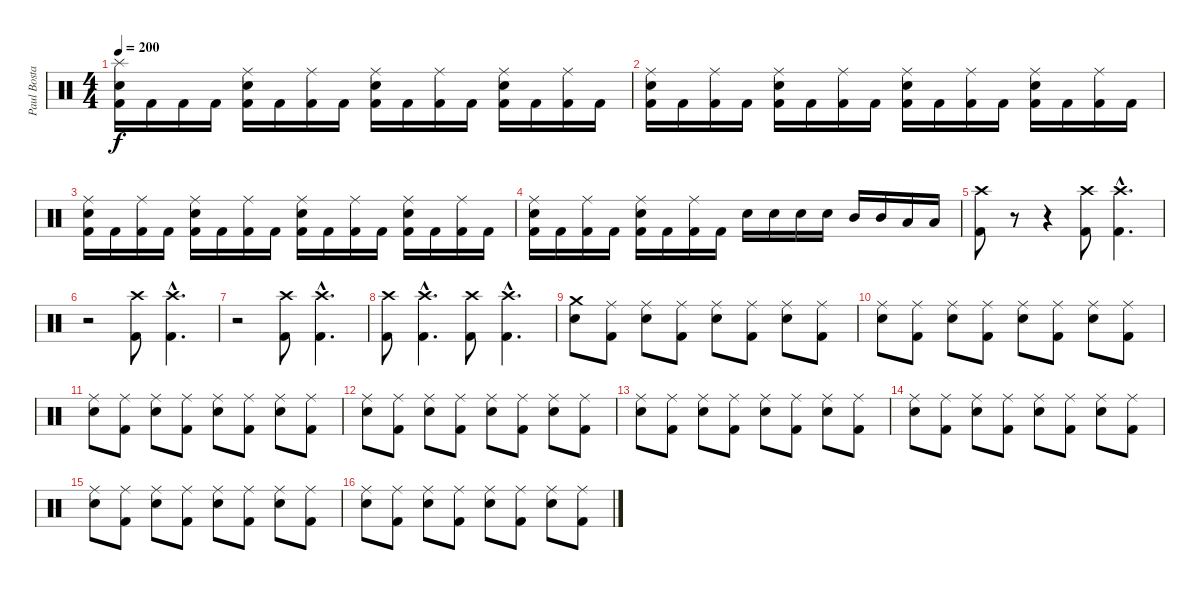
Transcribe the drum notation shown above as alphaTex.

\track ("Paul Bostaph" "Paul Bosta") {instrument percussion}
\staff {score}
\articulation defaults
\ts (4 4)
\tempo 200
\clef neutral
\ks c
("Electric Snare (hit)" "Kick (hit) 2" "Splash (hit)").16{dy f} "Kick (hit) 2".16 "Kick (hit) 2".16 "Kick (hit) 2".16 ("Kick (hit) 2" "Electric Snare (hit)" "Ride (middle)").16 "Kick (hit) 2".16 ("Kick (hit) 2" "Ride (middle)").16 "Kick (hit) 2".16 ("Electric Snare (hit)" "Kick (hit) 2" "Ride (middle)").16 "Kick (hit) 2".16 ("Kick (hit) 2" "Ride (middle)").16 "Kick (hit) 2".16 ("Kick (hit) 2" "Electric Snare (hit)" "Ride (middle)").16 "Kick (hit) 2".16 ("Kick (hit) 2" "Ride (middle)").16 "Kick (hit) 2".16 |
("Electric Snare (hit)" "Kick (hit) 2" "Ride (middle)").16 "Kick (hit) 2".16 ("Kick (hit) 2" "Ride (middle)").16 "Kick (hit) 2".16 ("Kick (hit) 2" "Electric Snare (hit)" "Ride (middle)").16 "Kick (hit) 2".16 ("Kick (hit) 2" "Ride (middle)").16 "Kick (hit) 2".16 ("Electric Snare (hit)" "Kick (hit) 2" "Ride (middle)").16 "Kick (hit) 2".16 ("Kick (hit) 2" "Ride (middle)").16 "Kick (hit) 2".16 ("Kick (hit) 2" "Electric Snare (hit)" "Ride (middle)").16 "Kick (hit) 2".16 ("Kick (hit) 2" "Ride (middle)").16 "Kick (hit) 2".16 |
("Electric Snare (hit)" "Kick (hit) 2" "Ride (middle)").16 "Kick (hit) 2".16 ("Kick (hit) 2" "Ride (middle)").16 "Kick (hit) 2".16 ("Kick (hit) 2" "Electric Snare (hit)" "Ride (middle)").16 "Kick (hit) 2".16 ("Kick (hit) 2" "Ride (middle)").16 "Kick (hit) 2".16 ("Electric Snare (hit)" "Kick (hit) 2" "Ride (middle)").16 "Kick (hit) 2".16 ("Kick (hit) 2" "Ride (middle)").16 "Kick (hit) 2".16 ("Kick (hit) 2" "Electric Snare (hit)" "Ride (middle)").16 "Kick (hit) 2".16 ("Kick (hit) 2" "Ride (middle)").16 "Kick (hit) 2".16 |
("Electric Snare (hit)" "Kick (hit) 2" "Ride (middle)").16 "Kick (hit) 2".16 ("Kick (hit) 2" "Ride (middle)").16 "Kick (hit) 2".16 ("Kick (hit) 2" "Electric Snare (hit)" "Ride (middle)").16 "Kick (hit) 2".16 ("Kick (hit) 2" "Ride (middle)").16 "Kick (hit) 2".16 "Electric Snare (hit)".16 "Electric Snare (hit)".16 "Electric Snare (hit)".16 "Electric Snare (hit)".16 "Mid Tom (hit)".16 "Mid Tom (hit)".16 "Low Tom (hit)".16 "Low Tom (hit)".16 |
("Crash high (hit)" "Kick (hit) 2").8 r.8 r.4 ("Crash high (hit)" "Kick (hit) 2").8 ("Crash high (hit)"{hac} "Kick (hit) 2"{hac}).4{d} |
r.2 ("Crash high (hit)" "Kick (hit) 2").8 ("Crash high (hit)"{hac} "Kick (hit) 2"{hac}).4{d} |
r.2 ("Crash high (hit)" "Kick (hit) 2").8 ("Crash high (hit)"{hac} "Kick (hit) 2"{hac}).4{d} |
("Crash high (hit)" "Kick (hit) 2").8 ("Crash high (hit)"{hac} "Kick (hit) 2"{hac}).4{d} ("Crash high (hit)" "Kick (hit) 2").8 ("Crash high (hit)"{hac} "Kick (hit) 2"{hac}).4{d} |
("Electric Snare (hit)" "Crash medium (hit)").8 ("Kick (hit) 2" "Ride (middle)").8 ("Electric Snare (hit)" "Ride (middle)").8 ("Kick (hit) 2" "Ride (middle)").8 ("Electric Snare (hit)" "Ride (middle)").8 ("Kick (hit) 2" "Ride (middle)").8 ("Electric Snare (hit)" "Ride (middle)").8 ("Kick (hit) 2" "Ride (middle)").8 |
("Electric Snare (hit)" "Ride (middle)").8 ("Kick (hit) 2" "Ride (middle)").8 ("Electric Snare (hit)" "Ride (middle)").8 ("Kick (hit) 2" "Ride (middle)").8 ("Electric Snare (hit)" "Ride (middle)").8 ("Kick (hit) 2" "Ride (middle)").8 ("Electric Snare (hit)" "Ride (middle)").8 ("Kick (hit) 2" "Ride (middle)").8 |
("Electric Snare (hit)" "Ride (middle)").8 ("Kick (hit) 2" "Ride (middle)").8 ("Electric Snare (hit)" "Ride (middle)").8 ("Kick (hit) 2" "Ride (middle)").8 ("Electric Snare (hit)" "Ride (middle)").8 ("Kick (hit) 2" "Ride (middle)").8 ("Electric Snare (hit)" "Ride (middle)").8 ("Kick (hit) 2" "Ride (middle)").8 |
("Electric Snare (hit)" "Ride (middle)").8 ("Kick (hit) 2" "Ride (middle)").8 ("Electric Snare (hit)" "Ride (middle)").8 ("Kick (hit) 2" "Ride (middle)").8 ("Electric Snare (hit)" "Ride (middle)").8 ("Kick (hit) 2" "Ride (middle)").8 ("Electric Snare (hit)" "Ride (middle)").8 ("Kick (hit) 2" "Ride (middle)").8 |
("Electric Snare (hit)" "Ride (middle)").8 ("Kick (hit) 2" "Ride (middle)").8 ("Electric Snare (hit)" "Ride (middle)").8 ("Kick (hit) 2" "Ride (middle)").8 ("Electric Snare (hit)" "Ride (middle)").8 ("Kick (hit) 2" "Ride (middle)").8 ("Electric Snare (hit)" "Ride (middle)").8 ("Kick (hit) 2" "Ride (middle)").8 |
("Electric Snare (hit)" "Ride (middle)").8 ("Kick (hit) 2" "Ride (middle)").8 ("Electric Snare (hit)" "Ride (middle)").8 ("Kick (hit) 2" "Ride (middle)").8 ("Electric Snare (hit)" "Ride (middle)").8 ("Kick (hit) 2" "Ride (middle)").8 ("Electric Snare (hit)" "Ride (middle)").8 ("Kick (hit) 2" "Ride (middle)").8 |
("Electric Snare (hit)" "Ride (middle)").8 ("Kick (hit) 2" "Ride (middle)").8 ("Electric Snare (hit)" "Ride (middle)").8 ("Kick (hit) 2" "Ride (middle)").8 ("Electric Snare (hit)" "Ride (middle)").8 ("Kick (hit) 2" "Ride (middle)").8 ("Electric Snare (hit)" "Ride (middle)").8 ("Kick (hit) 2" "Ride (middle)").8 |
("Electric Snare (hit)" "Ride (middle)").8 ("Kick (hit) 2" "Ride (middle)").8 ("Electric Snare (hit)" "Ride (middle)").8 ("Kick (hit) 2" "Ride (middle)").8 ("Electric Snare (hit)" "Ride (middle)").8 ("Kick (hit) 2" "Ride (middle)").8 ("Electric Snare (hit)" "Ride (middle)").8 ("Kick (hit) 2" "Ride (middle)").8
